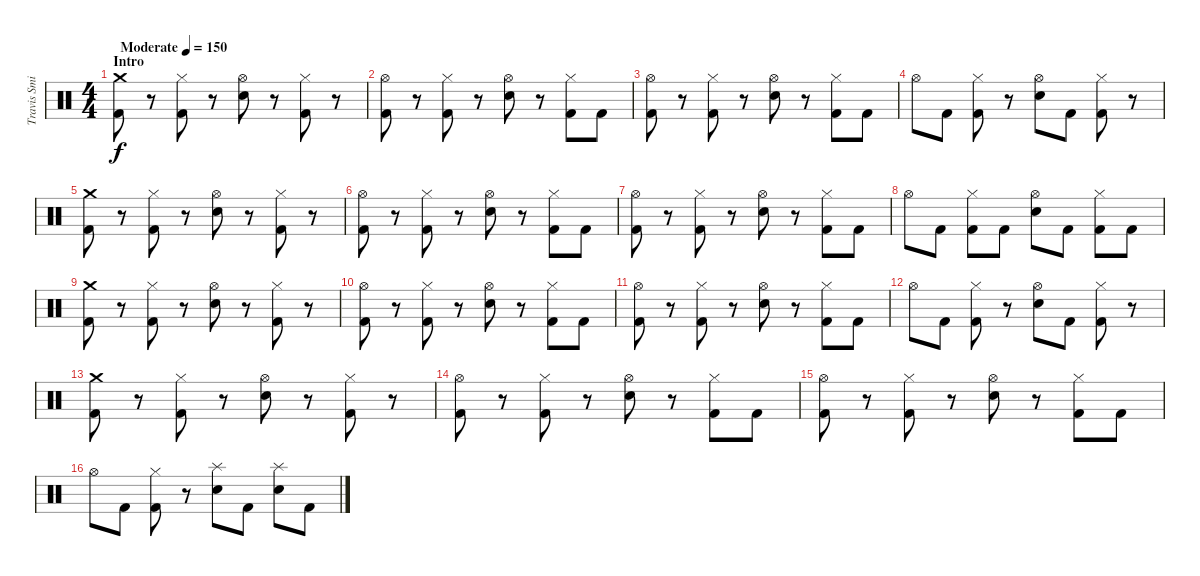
\track ("Travis Smith" "Travis Smi") {instrument percussion}
\staff {score}
\articulation defaults
\ts (4 4)
\section ("" "Intro")
\tempo (150 "Moderate")
\clef neutral
\ks c
("Crash medium (hit)" "Kick (hit) 2").8{dy f} r.8 ("Hi-Hat (closed)" "Kick (hit) 2").8 r.8 ("Hi-Hat (open)" "Electric Snare (hit)").8 r.8 ("Hi-Hat (closed)" "Kick (hit) 2").8 r.8 |
("Hi-Hat (open)" "Kick (hit) 2").8 r.8 ("Hi-Hat (closed)" "Kick (hit) 2").8 r.8 ("Hi-Hat (open)" "Electric Snare (hit)").8 r.8 ("Hi-Hat (closed)" "Kick (hit) 2").8 "Kick (hit) 2".8 |
("Hi-Hat (open)" "Kick (hit) 2").8 r.8 ("Hi-Hat (closed)" "Kick (hit) 2").8 r.8 ("Hi-Hat (open)" "Electric Snare (hit)").8 r.8 ("Hi-Hat (closed)" "Kick (hit) 2").8 "Kick (hit) 2".8 |
"Hi-Hat (open)".8 "Kick (hit) 2".8 ("Hi-Hat (closed)" "Kick (hit) 2").8 r.8 ("Hi-Hat (open)" "Electric Snare (hit)").8 "Kick (hit) 2".8 ("Hi-Hat (closed)" "Kick (hit) 2").8 r.8 |
("Crash medium (hit)" "Kick (hit) 2").8 r.8 ("Hi-Hat (closed)" "Kick (hit) 2").8 r.8 ("Hi-Hat (open)" "Electric Snare (hit)").8 r.8 ("Hi-Hat (closed)" "Kick (hit) 2").8 r.8 |
("Hi-Hat (open)" "Kick (hit) 2").8 r.8 ("Hi-Hat (closed)" "Kick (hit) 2").8 r.8 ("Hi-Hat (open)" "Electric Snare (hit)").8 r.8 ("Hi-Hat (closed)" "Kick (hit) 2").8 "Kick (hit) 2".8 |
("Hi-Hat (open)" "Kick (hit) 2").8 r.8 ("Hi-Hat (closed)" "Kick (hit) 2").8 r.8 ("Hi-Hat (open)" "Electric Snare (hit)").8 r.8 ("Hi-Hat (closed)" "Kick (hit) 2").8 "Kick (hit) 2".8 |
"Hi-Hat (open)".8 "Kick (hit) 2".8 ("Hi-Hat (closed)" "Kick (hit) 2").8 "Kick (hit) 2".8 ("Hi-Hat (open)" "Electric Snare (hit)").8 "Kick (hit) 2".8 ("Hi-Hat (closed)" "Kick (hit) 2").8 "Kick (hit) 2".8 |
("Crash medium (hit)" "Kick (hit) 2").8 r.8 ("Hi-Hat (closed)" "Kick (hit) 2").8 r.8 ("Hi-Hat (open)" "Electric Snare (hit)").8 r.8 ("Hi-Hat (closed)" "Kick (hit) 2").8 r.8 |
("Hi-Hat (open)" "Kick (hit) 2").8 r.8 ("Hi-Hat (closed)" "Kick (hit) 2").8 r.8 ("Hi-Hat (open)" "Electric Snare (hit)").8 r.8 ("Hi-Hat (closed)" "Kick (hit) 2").8 "Kick (hit) 2".8 |
("Hi-Hat (open)" "Kick (hit) 2").8 r.8 ("Hi-Hat (closed)" "Kick (hit) 2").8 r.8 ("Hi-Hat (open)" "Electric Snare (hit)").8 r.8 ("Hi-Hat (closed)" "Kick (hit) 2").8 "Kick (hit) 2".8 |
"Hi-Hat (open)".8 "Kick (hit) 2".8 ("Hi-Hat (closed)" "Kick (hit) 2").8 r.8 ("Hi-Hat (open)" "Electric Snare (hit)").8 "Kick (hit) 2".8 ("Hi-Hat (closed)" "Kick (hit) 2").8 r.8 |
("Crash medium (hit)" "Kick (hit) 2").8 r.8 ("Hi-Hat (closed)" "Kick (hit) 2").8 r.8 ("Hi-Hat (open)" "Electric Snare (hit)").8 r.8 ("Hi-Hat (closed)" "Kick (hit) 2").8 r.8 |
("Hi-Hat (open)" "Kick (hit) 2").8 r.8 ("Hi-Hat (closed)" "Kick (hit) 2").8 r.8 ("Hi-Hat (open)" "Electric Snare (hit)").8 r.8 ("Hi-Hat (closed)" "Kick (hit) 2").8 "Kick (hit) 2".8 |
("Hi-Hat (open)" "Kick (hit) 2").8 r.8 ("Hi-Hat (closed)" "Kick (hit) 2").8 r.8 ("Hi-Hat (open)" "Electric Snare (hit)").8 r.8 ("Hi-Hat (closed)" "Kick (hit) 2").8 "Kick (hit) 2".8 |
"Hi-Hat (open)".8 "Kick (hit) 2".8 ("Hi-Hat (closed)" "Kick (hit) 2").8 r.8 ("Splash (hit)" "Electric Snare (hit)").8 "Kick (hit) 2".8 ("Splash (hit)" "Electric Snare (hit)").8 "Kick (hit) 2".8
